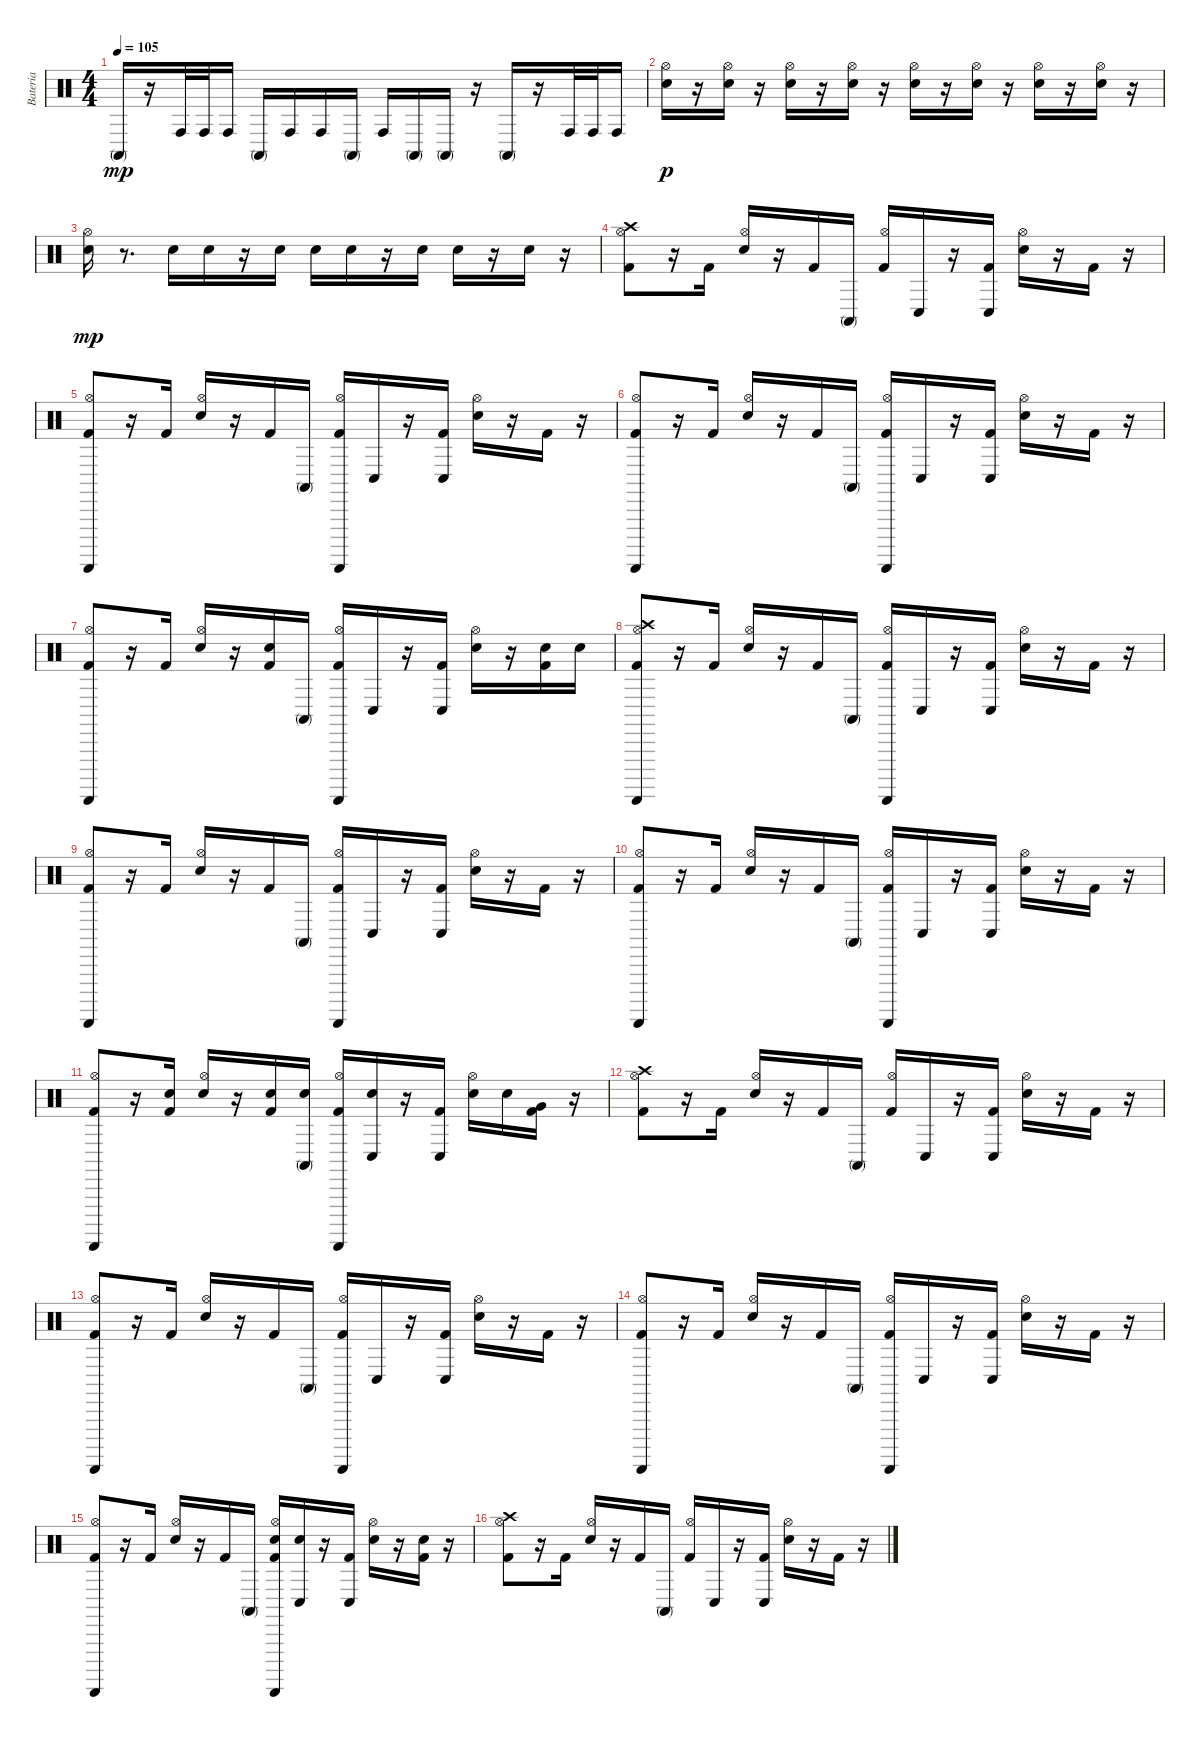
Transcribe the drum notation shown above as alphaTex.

\track ("Bateria" "Bateria") {instrument percussion}
\staff {score}
\articulation defaults
\ts (4 4)
\tempo 105
\clef neutral
\ks c "Conga high (mute)".16{dy mp}
r.16 "Conga high (hit)".32 "Conga high (hit)".32 "Conga high (hit)".16 "Conga high (mute)".16 "Conga high (hit)".16 "Conga high (hit)".16 "Conga high (mute)".16 "Conga high (hit)".16 "Conga high (mute)".16 "Conga high (mute)".16 r.16 "Conga high (mute)".16 r.16 "Conga high (hit)".32 "Conga high (hit)".32 "Conga high (hit)".16 |
("Electric Snare (hit)" "Hi-Hat (open)").16{dy p} r.16 ("Electric Snare (hit)" "Hi-Hat (open)").16 r.16 ("Electric Snare (hit)" "Hi-Hat (open)").16 r.16 ("Electric Snare (hit)" "Hi-Hat (open)").16 r.16 ("Electric Snare (hit)" "Hi-Hat (open)").16 r.16 ("Electric Snare (hit)" "Hi-Hat (open)").16 r.16 ("Electric Snare (hit)" "Hi-Hat (open)").16 r.16 ("Electric Snare (hit)" "Hi-Hat (open)").16 r.16 |
("Hi-Hat (open)" "Electric Snare (hit)").16{dy mp} r.8{d} "Electric Snare (hit)".16 "Electric Snare (hit)".16 r.16 "Electric Snare (hit)".16 "Electric Snare (hit)".16 "Electric Snare (hit)".16 r.16 "Electric Snare (hit)".16 "Electric Snare (hit)".16 r.16 "Electric Snare (hit)".16 r.16 |
("Kick (hit) 2" "Crash high (hit)" "Hi-Hat (open)").8 r.16 "Kick (hit) 2".16 ("Electric Snare (hit)" "Hi-Hat (open)").16 r.16 "Kick (hit) 2".16 "Conga high (mute)".16 ("Kick (hit) 2" "Hi-Hat (open)").16 "Conga low (hit)".16 r.16 ("Conga low (hit)" "Kick (hit) 2").16 ("Electric Snare (hit)" "Hi-Hat (open)").16 r.16 "Kick (hit) 2".16 r.16 |
("Kick (hit) 2" "Guiro (scrap-return)" "Hi-Hat (open)").8 r.16 "Kick (hit) 2".16 ("Electric Snare (hit)" "Hi-Hat (open)").16 r.16 "Kick (hit) 2".16 "Conga high (mute)".16 ("Kick (hit) 2" "Guiro (scrap-return)" "Hi-Hat (open)").16 "Conga low (hit)".16 r.16 ("Conga low (hit)" "Kick (hit) 2").16 ("Electric Snare (hit)" "Hi-Hat (open)").16 r.16 "Kick (hit) 2".16 r.16 |
("Kick (hit) 2" "Guiro (scrap-return)" "Hi-Hat (open)").8 r.16 "Kick (hit) 2".16 ("Electric Snare (hit)" "Hi-Hat (open)").16 r.16 "Kick (hit) 2".16 "Conga high (mute)".16 ("Kick (hit) 2" "Guiro (scrap-return)" "Hi-Hat (open)").16 "Conga low (hit)".16 r.16 ("Conga low (hit)" "Kick (hit) 2").16 ("Electric Snare (hit)" "Hi-Hat (open)").16 r.16 "Kick (hit) 2".16 r.16 |
("Kick (hit) 2" "Guiro (scrap-return)" "Hi-Hat (open)").8 r.16 "Kick (hit) 2".16 ("Electric Snare (hit)" "Hi-Hat (open)").16 r.16 ("Kick (hit) 2" "Electric Snare (hit)").16 "Conga high (mute)".16 ("Kick (hit) 2" "Guiro (scrap-return)" "Hi-Hat (open)").16 "Conga low (hit)".16 r.16 ("Conga low (hit)" "Kick (hit) 2").16 ("Electric Snare (hit)" "Hi-Hat (open)").16 r.16 ("Kick (hit) 2" "Electric Snare (hit)").16 "Electric Snare (hit)".16 |
("Kick (hit) 2" "Guiro (scrap-return)" "Hi-Hat (open)" "Crash high (hit)").8 r.16 "Kick (hit) 2".16 ("Electric Snare (hit)" "Hi-Hat (open)").16 r.16 "Kick (hit) 2".16 "Conga high (mute)".16 ("Kick (hit) 2" "Guiro (scrap-return)" "Hi-Hat (open)").16 "Conga low (hit)".16 r.16 ("Conga low (hit)" "Kick (hit) 2").16 ("Electric Snare (hit)" "Hi-Hat (open)").16 r.16 "Kick (hit) 2".16 r.16 |
("Kick (hit) 2" "Guiro (scrap-return)" "Hi-Hat (open)").8 r.16 "Kick (hit) 2".16 ("Electric Snare (hit)" "Hi-Hat (open)").16 r.16 "Kick (hit) 2".16 "Conga high (mute)".16 ("Kick (hit) 2" "Guiro (scrap-return)" "Hi-Hat (open)").16 "Conga low (hit)".16 r.16 ("Conga low (hit)" "Kick (hit) 2").16 ("Electric Snare (hit)" "Hi-Hat (open)").16 r.16 "Kick (hit) 2".16 r.16 |
("Kick (hit) 2" "Guiro (scrap-return)" "Hi-Hat (open)").8 r.16 "Kick (hit) 2".16 ("Electric Snare (hit)" "Hi-Hat (open)").16 r.16 "Kick (hit) 2".16 "Conga high (mute)".16 ("Kick (hit) 2" "Guiro (scrap-return)" "Hi-Hat (open)").16 "Conga low (hit)".16 r.16 ("Conga low (hit)" "Kick (hit) 2").16 ("Electric Snare (hit)" "Hi-Hat (open)").16 r.16 "Kick (hit) 2".16 r.16 |
("Kick (hit) 2" "Guiro (scrap-return)" "Hi-Hat (open)").8 r.16 ("Kick (hit) 2" "Electric Snare (hit)").16 ("Electric Snare (hit)" "Hi-Hat (open)").16 r.16 ("Kick (hit) 2" "Electric Snare (hit)").16 ("Conga high (mute)" "Electric Snare (hit)").16 ("Kick (hit) 2" "Guiro (scrap-return)" "Hi-Hat (open)").16 ("Conga low (hit)" "Electric Snare (hit)").16 r.16 ("Conga low (hit)" "Kick (hit) 2").16 ("Electric Snare (hit)" "Hi-Hat (open)").16 "Electric Snare (hit)".16 ("Kick (hit) 2" "Very Low Tom (hit)").16 r.16 |
("Kick (hit) 2" "Crash high (hit)" "Hi-Hat (open)").8 r.16 "Kick (hit) 2".16 ("Electric Snare (hit)" "Hi-Hat (open)").16 r.16 "Kick (hit) 2".16 "Conga high (mute)".16 ("Kick (hit) 2" "Hi-Hat (open)").16 "Conga low (hit)".16 r.16 ("Conga low (hit)" "Kick (hit) 2").16 ("Electric Snare (hit)" "Hi-Hat (open)").16 r.16 "Kick (hit) 2".16 r.16 |
("Kick (hit) 2" "Guiro (scrap-return)" "Hi-Hat (open)").8 r.16 "Kick (hit) 2".16 ("Electric Snare (hit)" "Hi-Hat (open)").16 r.16 "Kick (hit) 2".16 "Conga high (mute)".16 ("Kick (hit) 2" "Guiro (scrap-return)" "Hi-Hat (open)").16 "Conga low (hit)".16 r.16 ("Conga low (hit)" "Kick (hit) 2").16 ("Electric Snare (hit)" "Hi-Hat (open)").16 r.16 "Kick (hit) 2".16 r.16 |
("Kick (hit) 2" "Guiro (scrap-return)" "Hi-Hat (open)").8 r.16 "Kick (hit) 2".16 ("Electric Snare (hit)" "Hi-Hat (open)").16 r.16 "Kick (hit) 2".16 "Conga high (mute)".16 ("Kick (hit) 2" "Guiro (scrap-return)" "Hi-Hat (open)").16 "Conga low (hit)".16 r.16 ("Conga low (hit)" "Kick (hit) 2").16 ("Electric Snare (hit)" "Hi-Hat (open)").16 r.16 "Kick (hit) 2".16 r.16 |
("Kick (hit) 2" "Guiro (scrap-return)" "Hi-Hat (open)").8 r.16 "Kick (hit) 2".16 ("Electric Snare (hit)" "Hi-Hat (open)").16 r.16 "Kick (hit) 2".16 "Conga high (mute)".16 ("Kick (hit) 2" "Guiro (scrap-return)" "Hi-Hat (open)" "Electric Snare (hit)").16 ("Conga low (hit)" "Electric Snare (hit)").16 r.16 ("Conga low (hit)" "Kick (hit) 2").16 ("Electric Snare (hit)" "Hi-Hat (open)").16 r.16 ("Kick (hit) 2" "Electric Snare (hit)").16 r.16 |
("Kick (hit) 2" "Crash high (hit)" "Hi-Hat (open)").8 r.16 "Kick (hit) 2".16 ("Electric Snare (hit)" "Hi-Hat (open)").16 r.16 "Kick (hit) 2".16 "Conga high (mute)".16 ("Kick (hit) 2" "Hi-Hat (open)").16 "Conga low (hit)".16 r.16 ("Conga low (hit)" "Kick (hit) 2").16 ("Electric Snare (hit)" "Hi-Hat (open)").16 r.16 "Kick (hit) 2".16 r.16
